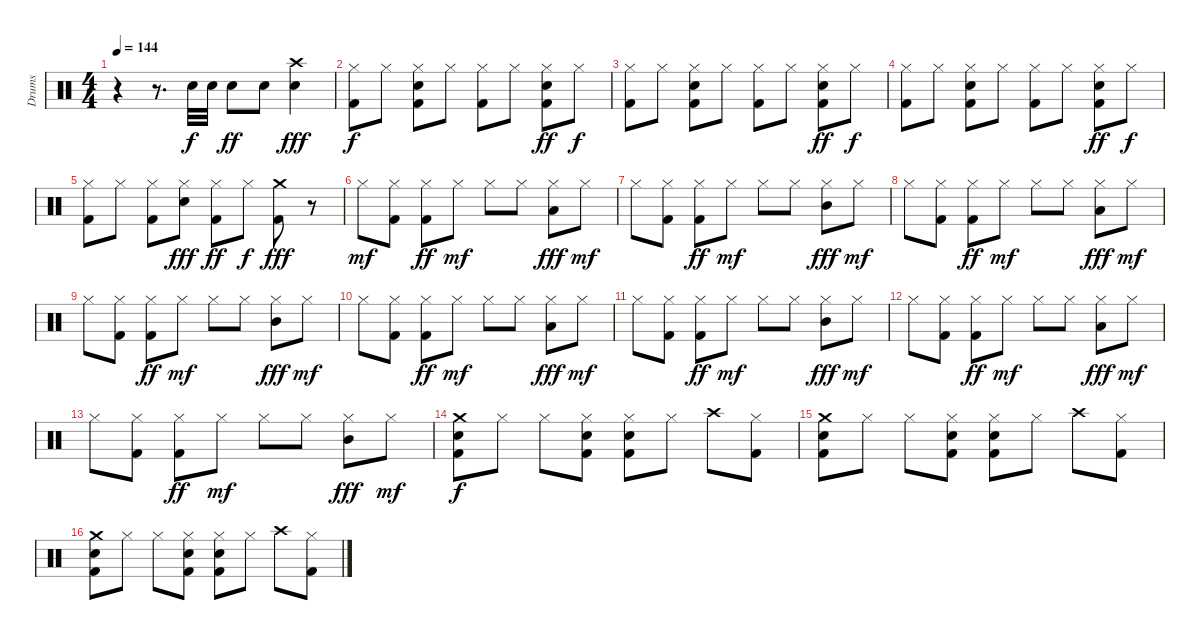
\track ("Drums" "Drums") {instrument percussion}
\staff {score}
\articulation defaults
\ts (4 4)
\tempo 144
\clef neutral
\ks c
r.4{dy f} r.8{d} "Snare (hit) 2".32 "Snare (hit) 2".32 "Snare (hit) 2".8{dy ff} "Snare (hit) 2".8 ("Crash high (hit)" "Snare (hit) 2").4{dy fff} |
("Hi-Hat (closed)" "Kick (hit) 2").8{dy f} "Hi-Hat (closed)".8 ("Hi-Hat (closed)" "Snare (hit) 2" "Kick (hit) 2").8 "Hi-Hat (closed)".8 ("Hi-Hat (closed)" "Kick (hit) 2").8 "Hi-Hat (closed)".8 ("Hi-Hat (closed)" "Snare (hit) 2" "Kick (hit) 2").8{dy ff} "Hi-Hat (closed)".8{dy f} |
("Hi-Hat (closed)" "Kick (hit) 2").8 "Hi-Hat (closed)".8 ("Hi-Hat (closed)" "Snare (hit) 2" "Kick (hit) 2").8 "Hi-Hat (closed)".8 ("Hi-Hat (closed)" "Kick (hit) 2").8 "Hi-Hat (closed)".8 ("Hi-Hat (closed)" "Snare (hit) 2" "Kick (hit) 2").8{dy ff} "Hi-Hat (closed)".8{dy f} |
("Hi-Hat (closed)" "Kick (hit) 2").8 "Hi-Hat (closed)".8 ("Hi-Hat (closed)" "Snare (hit) 2" "Kick (hit) 2").8 "Hi-Hat (closed)".8 ("Hi-Hat (closed)" "Kick (hit) 2").8 "Hi-Hat (closed)".8 ("Hi-Hat (closed)" "Snare (hit) 2" "Kick (hit) 2").8{dy ff} "Hi-Hat (closed)".8{dy f} |
("Hi-Hat (closed)" "Kick (hit) 2").8 "Hi-Hat (closed)".8 ("Hi-Hat (closed)" "Kick (hit) 2").8 ("Hi-Hat (closed)" "Snare (hit) 2").8{dy fff} ("Hi-Hat (closed)" "Kick (hit) 2").8{dy ff} "Hi-Hat (closed)".8{dy f} ("Crash medium (hit)" "Kick (hit) 2").8{dy fff} r.8 |
"Hi-Hat (closed)".8{dy mf} ("Hi-Hat (closed)" "Kick (hit) 2").8 ("Hi-Hat (closed)" "Kick (hit) 2").8{dy ff} "Hi-Hat (closed)".8{dy mf} "Hi-Hat (closed)".8 "Hi-Hat (closed)".8 ("Hi-Hat (closed)" "Low Tom (hit)").8{dy fff} "Hi-Hat (closed)".8{dy mf} |
"Hi-Hat (closed)".8 ("Hi-Hat (closed)" "Kick (hit) 2").8 ("Hi-Hat (closed)" "Kick (hit) 2").8{dy ff} "Hi-Hat (closed)".8{dy mf} "Hi-Hat (closed)".8 "Hi-Hat (closed)".8 ("Hi-Hat (closed)" "Mid Tom (hit)").8{dy fff} "Hi-Hat (closed)".8{dy mf} |
"Hi-Hat (closed)".8 ("Hi-Hat (closed)" "Kick (hit) 2").8 ("Hi-Hat (closed)" "Kick (hit) 2").8{dy ff} "Hi-Hat (closed)".8{dy mf} "Hi-Hat (closed)".8 "Hi-Hat (closed)".8 ("Hi-Hat (closed)" "Low Tom (hit)").8{dy fff} "Hi-Hat (closed)".8{dy mf} |
"Hi-Hat (closed)".8 ("Hi-Hat (closed)" "Kick (hit) 2").8 ("Hi-Hat (closed)" "Kick (hit) 2").8{dy ff} "Hi-Hat (closed)".8{dy mf} "Hi-Hat (closed)".8 "Hi-Hat (closed)".8 ("Hi-Hat (closed)" "Mid Tom (hit)").8{dy fff} "Hi-Hat (closed)".8{dy mf} |
"Hi-Hat (closed)".8 ("Hi-Hat (closed)" "Kick (hit) 2").8 ("Hi-Hat (closed)" "Kick (hit) 2").8{dy ff} "Hi-Hat (closed)".8{dy mf} "Hi-Hat (closed)".8 "Hi-Hat (closed)".8 ("Hi-Hat (closed)" "Low Tom (hit)").8{dy fff} "Hi-Hat (closed)".8{dy mf} |
"Hi-Hat (closed)".8 ("Hi-Hat (closed)" "Kick (hit) 2").8 ("Hi-Hat (closed)" "Kick (hit) 2").8{dy ff} "Hi-Hat (closed)".8{dy mf} "Hi-Hat (closed)".8 "Hi-Hat (closed)".8 ("Hi-Hat (closed)" "Mid Tom (hit)").8{dy fff} "Hi-Hat (closed)".8{dy mf} |
"Hi-Hat (closed)".8 ("Hi-Hat (closed)" "Kick (hit) 2").8 ("Hi-Hat (closed)" "Kick (hit) 2").8{dy ff} "Hi-Hat (closed)".8{dy mf} "Hi-Hat (closed)".8 "Hi-Hat (closed)".8 ("Hi-Hat (closed)" "Low Tom (hit)").8{dy fff} "Hi-Hat (closed)".8{dy mf} |
"Hi-Hat (closed)".8 ("Hi-Hat (closed)" "Kick (hit) 2").8 ("Hi-Hat (closed)" "Kick (hit) 2").8{dy ff} "Hi-Hat (closed)".8{dy mf} "Hi-Hat (closed)".8 "Hi-Hat (closed)".8 ("Hi-Hat (closed)" "Mid Tom (hit)").8{dy fff} "Hi-Hat (closed)".8{dy mf} |
("Crash medium (hit)" "Snare (hit) 2" "Kick (hit) 2").8{dy f} "Hi-Hat (closed)".8 "Hi-Hat (closed)".8 ("Hi-Hat (closed)" "Snare (hit) 2" "Kick (hit) 2").8 ("Hi-Hat (closed)" "Snare (hit) 2" "Kick (hit) 2").8 "Hi-Hat (closed)".8 "Crash high (hit)".8 ("Hi-Hat (closed)" "Kick (hit) 2").8 |
("Crash medium (hit)" "Snare (hit) 2" "Kick (hit) 2").8 "Hi-Hat (closed)".8 "Hi-Hat (closed)".8 ("Hi-Hat (closed)" "Snare (hit) 2" "Kick (hit) 2").8 ("Hi-Hat (closed)" "Snare (hit) 2" "Kick (hit) 2").8 "Hi-Hat (closed)".8 "Crash high (hit)".8 ("Hi-Hat (closed)" "Kick (hit) 2").8 |
("Crash medium (hit)" "Snare (hit) 2" "Kick (hit) 2").8 "Hi-Hat (closed)".8 "Hi-Hat (closed)".8 ("Hi-Hat (closed)" "Snare (hit) 2" "Kick (hit) 2").8 ("Hi-Hat (closed)" "Snare (hit) 2" "Kick (hit) 2").8 "Hi-Hat (closed)".8 "Crash high (hit)".8 ("Hi-Hat (closed)" "Kick (hit) 2").8
